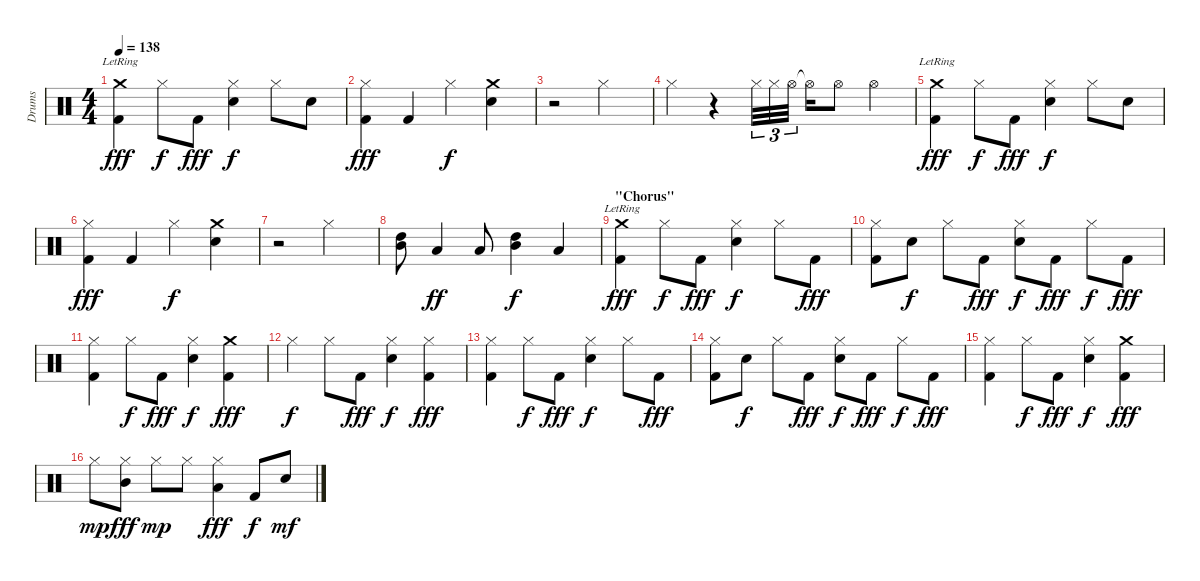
\track ("Drums" "Drums") {instrument percussion}
\staff {score}
\articulation defaults
\ts (4 4)
\tempo 138
\clef neutral
\ks c
("Crash medium (hit)"{lr} "Kick (hit) 2").4{dy fff} "Hi-Hat (closed)".8{dy f} "Kick (hit) 2".8{dy fff} ("Hi-Hat (closed)" "Snare (hit) 2").4{dy f} "Hi-Hat (closed)".8 "Snare (hit) 2".8 |
("Hi-Hat (closed)" "Kick (hit) 2").4{dy fff} "Kick (hit) 2".4 "Hi-Hat (closed)".4{dy f} ("Crash medium (hit)" "Snare (hit) 2").4 |
r.2 "Hi-Hat (closed)".2 |
"Hi-Hat (closed)".4 r.4 "Hi-Hat (closed)".32{tu (3 2)} "Hi-Hat (closed)".32{tu (3 2)} "Hi-Hat (open)".32{tu (3 2)} "Hi-Hat (open)"{t}.16 "Hi-Hat (open)".8 "Hi-Hat (open)".4 |
("Crash medium (hit)"{lr} "Kick (hit) 2").4{dy fff} "Hi-Hat (closed)".8{dy f} "Kick (hit) 2".8{dy fff} ("Hi-Hat (closed)" "Snare (hit) 2").4{dy f} "Hi-Hat (closed)".8 "Snare (hit) 2".8 |
("Hi-Hat (closed)" "Kick (hit) 2").4{dy fff} "Kick (hit) 2".4 "Hi-Hat (closed)".4{dy f} ("Crash medium (hit)" "Snare (hit) 2").4 |
r.2 "Hi-Hat (closed)".2 |
("High Tom (hit)" "Mid Tom (hit)").8{bd 480} "Low Tom (hit)".4{dy ff} "Low Tom (hit)".8 ("High Tom (hit)" "Mid Tom (hit)").4{bd 240 dy f} "Low Tom (hit)".4 |
\section ("" "\"Chorus\"")
("Crash medium (hit)"{lr} "Kick (hit) 2").4{dy fff} "Hi-Hat (closed)".8{dy f} "Kick (hit) 2".8{dy fff} ("Hi-Hat (closed)" "Snare (hit) 2").4{dy f} "Hi-Hat (closed)".8 "Kick (hit) 2".8{dy fff} |
("Hi-Hat (closed)" "Kick (hit) 2").8 "Snare (hit) 2".8{dy f} "Hi-Hat (closed)".8 "Kick (hit) 2".8{dy fff} ("Hi-Hat (closed)" "Snare (hit) 2").8{dy f} "Kick (hit) 2".8{dy fff} "Hi-Hat (closed)".8{dy f} "Kick (hit) 2".8{dy fff} |
("Hi-Hat (closed)" "Kick (hit) 2").4 "Hi-Hat (closed)".8{dy f} "Kick (hit) 2".8{dy fff} ("Hi-Hat (closed)" "Snare (hit) 2").4{dy f} ("Crash medium (hit)" "Kick (hit) 2").4{dy fff} |
"Hi-Hat (closed)".4{dy f} "Hi-Hat (closed)".8 "Kick (hit) 2".8{dy fff} ("Hi-Hat (closed)" "Snare (hit) 2").4{dy f} ("Hi-Hat (closed)" "Kick (hit) 2").4{dy fff} |
("Hi-Hat (closed)" "Kick (hit) 2").4 "Hi-Hat (closed)".8{dy f} "Kick (hit) 2".8{dy fff} ("Hi-Hat (closed)" "Snare (hit) 2").4{dy f} "Hi-Hat (closed)".8 "Kick (hit) 2".8{dy fff} |
("Hi-Hat (closed)" "Kick (hit) 2").8 "Snare (hit) 2".8{dy f} "Hi-Hat (closed)".8 "Kick (hit) 2".8{dy fff} ("Hi-Hat (closed)" "Snare (hit) 2").8{dy f} "Kick (hit) 2".8{dy fff} "Hi-Hat (closed)".8{dy f} "Kick (hit) 2".8{dy fff} |
("Hi-Hat (closed)" "Kick (hit) 2").4 "Hi-Hat (closed)".8{dy f} "Kick (hit) 2".8{dy fff} ("Hi-Hat (closed)" "Snare (hit) 2").4{dy f} ("Crash medium (hit)" "Kick (hit) 2").4{dy fff} |
"Hi-Hat (closed)".8{dy mp} ("Hi-Hat (closed)" "Mid Tom (hit)").8{dy fff} "Hi-Hat (closed)".8{dy mp} "Hi-Hat (closed)".8 ("Hi-Hat (closed)" "Low Tom (hit)").4{dy fff} "Kick (hit) 2".8{dy f} "Snare (hit) 2".8{dy mf}
